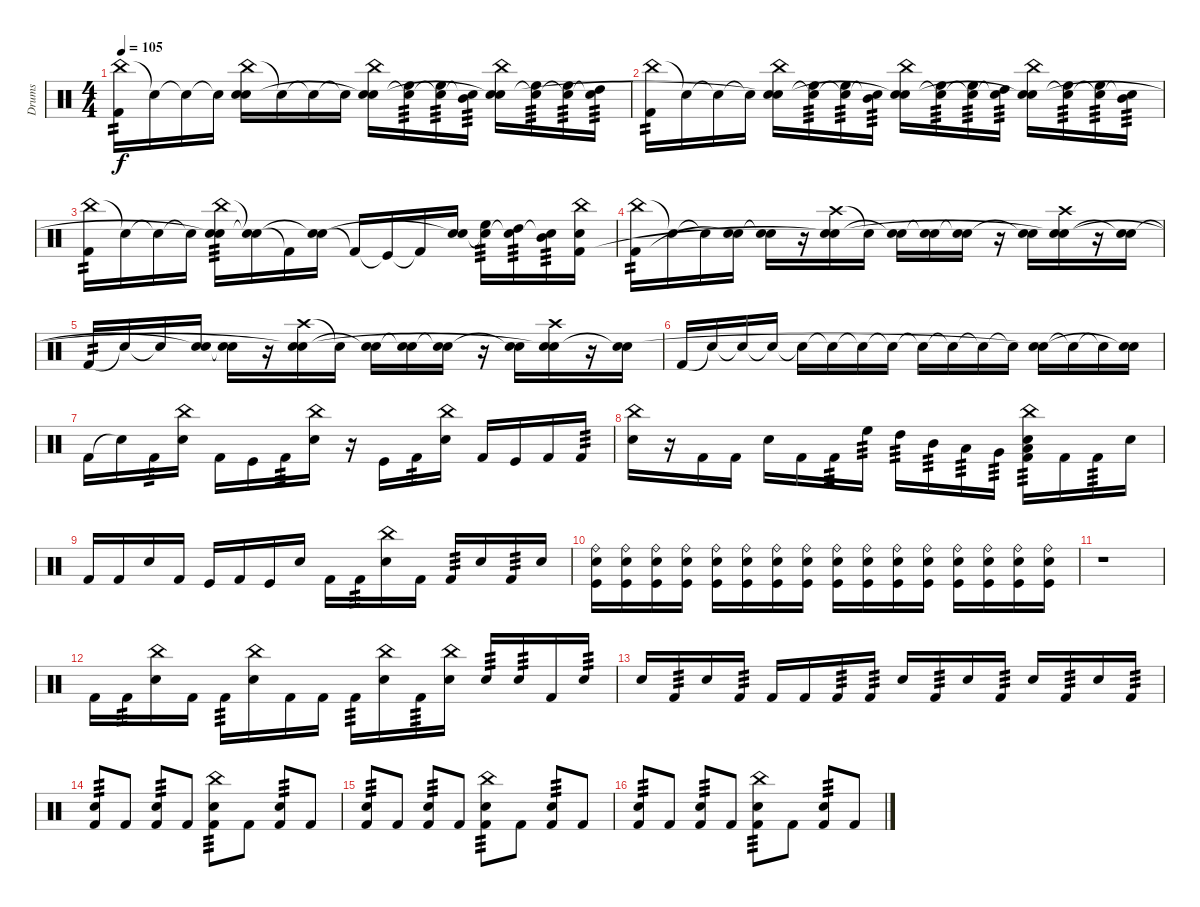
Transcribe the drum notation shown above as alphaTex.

\track ("Drums" "Drums") {instrument percussion}
\staff {score}
\articulation defaults
\ts (4 4)
\tempo 105
\clef neutral
\ks c
("China (hit)" "Kick (hit) 2").16{tp 2 dy f} "Snare (hit)"{t}.16 "Snare (hit)"{t}.16 "Snare (hit)"{t}.16 ("China (hit)" "Electric Snare (hit)" "Snare (hit)").16 "Snare (hit)"{t}.16 "Snare (hit)"{t}.16 "Snare (hit)"{t}.16 ("China (hit)" "Electric Snare (hit)" "Snare (hit)"{t}).16 ("High Floor Tom (hit)" "Snare (hit)"{t}).16{tp 3} ("High Floor Tom (hit)" "Snare (hit)"{t}).16{tp 3} ("Mid Tom (hit)" "Snare (hit)"{t}).16{tp 3} ("China (hit)" "Electric Snare (hit)" "Snare (hit)"{t}).16 ("High Floor Tom (hit)" "Snare (hit)"{t}).16{tp 3} ("High Floor Tom (hit)" "Snare (hit)"{t}).16{tp 3} ("High Tom (hit)" "Snare (hit)"{t}).16{tp 3} |
("China (hit)" "Kick (hit) 2").16{tp 2} "Snare (hit)"{t}.16 "Snare (hit)"{t}.16 "Snare (hit)"{t}.16 ("China (hit)" "Electric Snare (hit)" "Snare (hit)"{t}).16 ("High Floor Tom (hit)" "Snare (hit)"{t}).16{tp 3} ("High Floor Tom (hit)" "Snare (hit)"{t}).16{tp 3} ("Mid Tom (hit)" "Snare (hit)"{t}).16{tp 3} ("China (hit)" "Electric Snare (hit)" "Snare (hit)"{t}).16 ("High Floor Tom (hit)" "Snare (hit)"{t}).16{tp 3} ("High Floor Tom (hit)" "Snare (hit)"{t}).16{tp 3} ("High Tom (hit)" "Snare (hit)"{t}).16{tp 3} ("China (hit)" "Electric Snare (hit)" "Snare (hit)"{t}).16 ("High Floor Tom (hit)" "Snare (hit)"{t}).16{tp 3} ("High Floor Tom (hit)" "Snare (hit)"{t}).16{tp 3} ("Mid Tom (hit)" "Snare (hit)"{t}).16{tp 3} |
("China (hit)" "Kick (hit) 2").16{tp 2} "Snare (hit)"{t}.16 "Snare (hit)"{t}.16 "Snare (hit)"{t}.16 ("China (hit)" "Electric Snare (hit)" "Snare (hit)"{t}).16{tp 3} ("Snare (hit)"{t} "Snare (hit)"{t}).16 "Kick (hit) 2"{t}.16 ("Electric Snare (hit)" "Snare (hit)"{t}).16 "Kick (hit) 2"{t}.16 "Kick (hit)"{t}.16 "Kick (hit) 2"{t}.16 ("Electric Snare (hit)" "Snare (hit)"{t}).16 ("High Floor Tom (hit)" "Snare (hit)"{t}).16{tp 3} ("High Tom (hit)" "Snare (hit)"{t}).16{tp 3} ("Mid Tom (hit)" "Snare (hit)"{t}).16{tp 3} ("China (hit)" "Electric Snare (hit)" "Kick (hit) 2").16 |
("China (hit)" "Kick (hit) 2").16{tp 2} "Snare (hit)"{t}.16 "Snare (hit)"{t}.16 ("Electric Snare (hit)" "Snare (hit)"{t}).16 ("Electric Snare (hit)" "Snare (hit)"{t}).16 r.16 ("Crash high (hit)" "Electric Snare (hit)" "Snare (hit)"{t}).16 "Snare (hit)"{t}.16 ("Electric Snare (hit)" "Snare (hit)"{t}).16 ("Electric Snare (hit)" "Snare (hit)"{t}).16 ("Electric Snare (hit)" "Snare (hit)"{t}).16 r.16 ("Electric Snare (hit)" "Snare (hit)"{t}).16 ("Crash high (hit)" "Electric Snare (hit)" "Snare (hit)"{t}).16 r.16 ("Electric Snare (hit)" "Snare (hit)"{t}).16 |
"Kick (hit) 2".16{tp 2} "Snare (hit)"{t}.16 "Snare (hit)"{t}.16 ("Electric Snare (hit)" "Snare (hit)"{t}).16 ("Electric Snare (hit)" "Snare (hit)"{t}).16 r.16 ("Crash high (hit)" "Electric Snare (hit)" "Snare (hit)"{t}).16 "Snare (hit)"{t}.16 ("Electric Snare (hit)" "Snare (hit)"{t}).16 ("Electric Snare (hit)" "Snare (hit)"{t}).16 ("Electric Snare (hit)" "Snare (hit)"{t}).16 r.16 ("Electric Snare (hit)" "Snare (hit)"{t}).16 ("Crash high (hit)" "Electric Snare (hit)" "Snare (hit)"{t}).16 r.16 ("Electric Snare (hit)" "Snare (hit)"{t}).16 |
"Kick (hit) 2"{tr (35 32)}.16 "Snare (hit)"{t}.16 "Snare (hit)"{t}.16 "Snare (hit)"{t}.16 "Snare (hit)"{t}.16 "Snare (hit)"{t}.16 "Snare (hit)"{t}.16 "Snare (hit)"{t}.16 "Snare (hit)"{t}.16 "Snare (hit)"{t}.16 "Snare (hit)"{t}.16 "Snare (hit)"{t}.16 ("Electric Snare (hit)" "Snare (hit)"{t}).16 "Snare (hit)"{t}.16 "Snare (hit)"{t}.16 ("Electric Snare (hit)" "Snare (hit)"{t}).16 |
"Kick (hit) 2".16 "Snare (hit)"{t}.16 "Kick (hit) 2".16{tp 3} ("China (hit)" "Electric Snare (hit)").16 "Kick (hit) 2".16 "Kick (hit)".16 "Kick (hit) 2".16{tp 3} ("China (hit)" "Electric Snare (hit)").16 r.16 "Kick (hit)".16 "Kick (hit) 2".16{tp 3} ("China (hit)" "Electric Snare (hit)").16 "Kick (hit) 2".16 "Kick (hit)".16 "Kick (hit) 2".16 "Kick (hit) 2".16{tp 3} |
("China (hit)" "Electric Snare (hit)").16 r.16 "Kick (hit) 2".16 "Kick (hit) 2".16 "Electric Snare (hit)".16 "Kick (hit) 2".16 "Kick (hit) 2".16{tp 3} "High Floor Tom (hit)".16{tp 3} "High Tom (hit)".16{tp 3} "Mid Tom (hit)".16{tp 3} "Low Tom (hit)".16{tp 3} "Very Low Tom (hit)".16{tp 3} ("Low Floor Tom (hit)" "China (hit)" "Electric Snare (hit)" "Kick (hit) 2").16{tp 3} "Kick (hit) 2".16 "Kick (hit) 2".16{tp 3} "Electric Snare (hit)".16 |
"Kick (hit) 2".16 "Kick (hit) 2".16 "Electric Snare (hit)".16 "Kick (hit) 2".16 "Kick (hit)".16 "Kick (hit) 2".16 "Kick (hit)".16 "Electric Snare (hit)".16 "Kick (hit) 2".16 "Kick (hit) 2".16{tp 3} ("China (hit)" "Electric Snare (hit)").16 "Kick (hit) 2".16 "Kick (hit) 2".16{tp 3} "Electric Snare (hit)".16 "Kick (hit) 2".16{tp 3} "Electric Snare (hit)".16 |
("Ride (bell)" "Electric Snare (hit)" "Kick (hit)").16 ("Ride (bell)" "Electric Snare (hit)" "Kick (hit)").16 ("Ride (bell)" "Electric Snare (hit)" "Kick (hit)").16 ("Ride (bell)" "Electric Snare (hit)" "Kick (hit)").16 ("Ride (bell)" "Electric Snare (hit)" "Kick (hit)").16 ("Ride (bell)" "Electric Snare (hit)" "Kick (hit)").16 ("Ride (bell)" "Electric Snare (hit)" "Kick (hit)").16 ("Ride (bell)" "Electric Snare (hit)" "Kick (hit)").16 ("Ride (bell)" "Electric Snare (hit)" "Kick (hit)").16 ("Ride (bell)" "Electric Snare (hit)" "Kick (hit)").16 ("Ride (bell)" "Electric Snare (hit)" "Kick (hit)").16 ("Ride (bell)" "Electric Snare (hit)" "Kick (hit)").16 ("Ride (bell)" "Electric Snare (hit)" "Kick (hit)").16 ("Ride (bell)" "Electric Snare (hit)" "Kick (hit)").16 ("Ride (bell)" "Electric Snare (hit)" "Kick (hit)").16 ("Ride (bell)" "Electric Snare (hit)" "Kick (hit)").16 |
r.1 |
"Kick (hit) 2".16 "Kick (hit) 2".16{tp 3} ("China (hit)" "Electric Snare (hit)").16 "Kick (hit) 2".16 "Kick (hit) 2".16{tp 3} ("China (hit)" "Electric Snare (hit)").16 "Kick (hit) 2".16 "Kick (hit) 2".16 "Kick (hit) 2".16{tp 3} ("China (hit)" "Electric Snare (hit)").16 "Kick (hit) 2".16{tp 3} ("China (hit)" "Electric Snare (hit)").16 "Electric Snare (hit)".16{tp 3} "Electric Snare (hit)".16{tp 3} "Kick (hit) 2".16 "Electric Snare (hit)".16{tp 3} |
"Electric Snare (hit)".16 "Kick (hit) 2".16{tp 3} "Electric Snare (hit)".16 "Kick (hit) 2".16{tp 3} "Kick (hit) 2".16 "Kick (hit) 2".16 "Kick (hit) 2".16{tp 3} "Kick (hit) 2".16{tp 3} "Electric Snare (hit)".16 "Kick (hit) 2".16{tp 3} "Electric Snare (hit)".16 "Kick (hit) 2".16{tp 3} "Electric Snare (hit)".16 "Kick (hit) 2".16{tp 3} "Electric Snare (hit)".16 "Kick (hit) 2".16{tp 3} |
("Electric Snare (hit)" "Kick (hit) 2").8{tp 3} "Kick (hit) 2".8 ("Electric Snare (hit)" "Kick (hit) 2").8{tp 3} "Kick (hit) 2".8 ("China (hit)" "Electric Snare (hit)" "Kick (hit) 2").8{tp 3} "Kick (hit) 2".8 ("Electric Snare (hit)" "Kick (hit) 2").8{tp 3} "Kick (hit) 2".8 |
("Electric Snare (hit)" "Kick (hit) 2").8{tp 3} "Kick (hit) 2".8 ("Electric Snare (hit)" "Kick (hit) 2").8{tp 3} "Kick (hit) 2".8 ("China (hit)" "Electric Snare (hit)" "Kick (hit) 2").8{tp 3} "Kick (hit) 2".8 ("Electric Snare (hit)" "Kick (hit) 2").8{tp 3} "Kick (hit) 2".8 |
("Electric Snare (hit)" "Kick (hit) 2").8{tp 3} "Kick (hit) 2".8 ("Electric Snare (hit)" "Kick (hit) 2").8{tp 3} "Kick (hit) 2".8 ("China (hit)" "Electric Snare (hit)" "Kick (hit) 2").8{tp 3} "Kick (hit) 2".8 ("Electric Snare (hit)" "Kick (hit) 2").8{tp 3} "Kick (hit) 2".8
